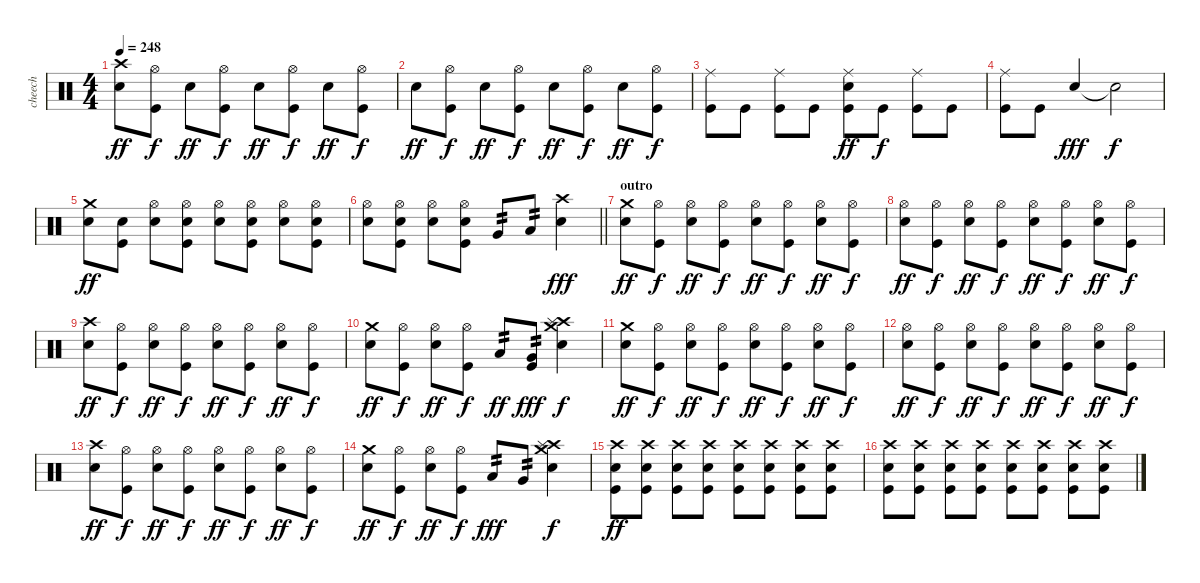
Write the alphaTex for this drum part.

\track ("cheech" "cheech") {instrument percussion}
\staff {score}
\articulation defaults
\ts (4 4)
\tempo 248
\clef neutral
\ks c
("Crash high (hit)" "Electric Snare (hit)").8{dy ff} ("Hi-Hat (open)" "Kick (hit)").8{dy f} "Electric Snare (hit)".8{dy ff} ("Hi-Hat (open)" "Kick (hit)").8{dy f} "Electric Snare (hit)".8{dy ff} ("Hi-Hat (open)" "Kick (hit)").8{dy f} "Electric Snare (hit)".8{dy ff} ("Hi-Hat (open)" "Kick (hit)").8{dy f} |
"Electric Snare (hit)".8{dy ff} ("Hi-Hat (open)" "Kick (hit)").8{dy f} "Electric Snare (hit)".8{dy ff} ("Hi-Hat (open)" "Kick (hit)").8{dy f} "Electric Snare (hit)".8{dy ff} ("Hi-Hat (open)" "Kick (hit)").8{dy f} "Electric Snare (hit)".8{dy ff} ("Hi-Hat (open)" "Kick (hit)").8{dy f} |
("Ride (middle)" "Kick (hit)").8 "Kick (hit)".8 ("Ride (middle)" "Kick (hit)").8 "Kick (hit)".8 ("Ride (middle)" "Electric Snare (hit)" "Kick (hit)").8{dy ff} "Kick (hit)".8{dy f} ("Ride (middle)" "Kick (hit)").8 "Kick (hit)".8 |
("Ride (middle)" "Kick (hit)").8 "Kick (hit)".8 "Electric Snare (hit)".4{dy fff beam Up} "Electric Snare (hit)"{t}.2{dy f} |
("Crash medium (hit)" "Electric Snare (hit)").8{dy ff} ("Electric Snare (hit)" "Kick (hit)").8 ("Hi-Hat (open)" "Electric Snare (hit)").8 ("Hi-Hat (open)" "Electric Snare (hit)" "Kick (hit)").8 ("Hi-Hat (open)" "Electric Snare (hit)").8 ("Hi-Hat (open)" "Electric Snare (hit)" "Kick (hit)").8 ("Hi-Hat (open)" "Electric Snare (hit)").8 ("Hi-Hat (open)" "Electric Snare (hit)" "Kick (hit)").8 |
\barLineRight lightlight
("Hi-Hat (open)" "Electric Snare (hit)").8 ("Hi-Hat (open)" "Electric Snare (hit)" "Kick (hit)").8 ("Hi-Hat (open)" "Electric Snare (hit)").8 ("Hi-Hat (open)" "Electric Snare (hit)" "Kick (hit)").8 "Very Low Tom (hit)".8{tp 2} "Low Floor Tom (hit)".8{tp 2} ("Crash high (hit)" "Electric Snare (hit)").4{dy fff} |
\section ("" "outro")
("Crash medium (hit)" "Electric Snare (hit)").8{dy ff} ("Hi-Hat (open)" "Kick (hit)").8{dy f} ("Hi-Hat (open)" "Electric Snare (hit)").8{dy ff} ("Hi-Hat (open)" "Kick (hit)").8{dy f} ("Hi-Hat (open)" "Electric Snare (hit)").8{dy ff} ("Hi-Hat (open)" "Kick (hit)").8{dy f} ("Hi-Hat (open)" "Electric Snare (hit)").8{dy ff} ("Hi-Hat (open)" "Kick (hit)").8{dy f} |
("Hi-Hat (open)" "Electric Snare (hit)").8{dy ff} ("Hi-Hat (open)" "Kick (hit)").8{dy f} ("Hi-Hat (open)" "Electric Snare (hit)").8{dy ff} ("Hi-Hat (open)" "Kick (hit)").8{dy f} ("Hi-Hat (open)" "Electric Snare (hit)").8{dy ff} ("Hi-Hat (open)" "Kick (hit)").8{dy f} ("Hi-Hat (open)" "Electric Snare (hit)").8{dy ff} ("Hi-Hat (open)" "Kick (hit)").8{dy f} |
("Crash high (hit)" "Electric Snare (hit)").8{dy ff} ("Hi-Hat (open)" "Kick (hit)").8{dy f} ("Hi-Hat (open)" "Electric Snare (hit)").8{dy ff} ("Hi-Hat (open)" "Kick (hit)").8{dy f} ("Hi-Hat (open)" "Electric Snare (hit)").8{dy ff} ("Hi-Hat (open)" "Kick (hit)").8{dy f} ("Hi-Hat (open)" "Electric Snare (hit)").8{dy ff} ("Hi-Hat (open)" "Kick (hit)").8{dy f} |
("Crash medium (hit)" "Electric Snare (hit)").8{dy ff} ("Hi-Hat (open)" "Kick (hit)").8{dy f} ("Hi-Hat (open)" "Electric Snare (hit)").8{dy ff} ("Hi-Hat (open)" "Kick (hit)").8{dy f} "Low Tom (hit)".8{tp 2 dy ff} ("Very Low Tom (hit)" "Kick (hit)").8{tp 2 dy fff} ("Crash high (hit)" "Splash (hit)" "Crash medium (hit)" "Electric Snare (hit)").4{dy f} |
("Crash medium (hit)" "Electric Snare (hit)").8{dy ff} ("Hi-Hat (open)" "Kick (hit)").8{dy f} ("Hi-Hat (open)" "Electric Snare (hit)").8{dy ff} ("Hi-Hat (open)" "Kick (hit)").8{dy f} ("Hi-Hat (open)" "Electric Snare (hit)").8{dy ff} ("Hi-Hat (open)" "Kick (hit)").8{dy f} ("Hi-Hat (open)" "Electric Snare (hit)").8{dy ff} ("Hi-Hat (open)" "Kick (hit)").8{dy f} |
("Hi-Hat (open)" "Electric Snare (hit)").8{dy ff} ("Hi-Hat (open)" "Kick (hit)").8{dy f} ("Hi-Hat (open)" "Electric Snare (hit)").8{dy ff} ("Hi-Hat (open)" "Kick (hit)").8{dy f} ("Hi-Hat (open)" "Electric Snare (hit)").8{dy ff} ("Hi-Hat (open)" "Kick (hit)").8{dy f} ("Hi-Hat (open)" "Electric Snare (hit)").8{dy ff} ("Hi-Hat (open)" "Kick (hit)").8{dy f} |
("Crash high (hit)" "Electric Snare (hit)").8{dy ff} ("Hi-Hat (open)" "Kick (hit)").8{dy f} ("Hi-Hat (open)" "Electric Snare (hit)").8{dy ff} ("Hi-Hat (open)" "Kick (hit)").8{dy f} ("Hi-Hat (open)" "Electric Snare (hit)").8{dy ff} ("Hi-Hat (open)" "Kick (hit)").8{dy f} ("Hi-Hat (open)" "Electric Snare (hit)").8{dy ff} ("Hi-Hat (open)" "Kick (hit)").8{dy f} |
("Crash medium (hit)" "Electric Snare (hit)").8{dy ff} ("Hi-Hat (open)" "Kick (hit)").8{dy f} ("Hi-Hat (open)" "Electric Snare (hit)").8{dy ff} ("Hi-Hat (open)" "Kick (hit)").8{dy f} "Low Tom (hit)".8{tp 2 dy fff} "Very Low Tom (hit)".8{tp 2} ("Crash high (hit)" "Splash (hit)" "Crash medium (hit)" "Electric Snare (hit)").4{dy f} |
("Crash high (hit)" "Electric Snare (hit)" "Kick (hit)").8{dy ff} ("Crash high (hit)" "Electric Snare (hit)" "Kick (hit)").8 ("Crash high (hit)" "Electric Snare (hit)" "Kick (hit)").8 ("Crash high (hit)" "Electric Snare (hit)" "Kick (hit)").8 ("Crash high (hit)" "Electric Snare (hit)" "Kick (hit)").8 ("Crash high (hit)" "Electric Snare (hit)" "Kick (hit)").8 ("Crash high (hit)" "Electric Snare (hit)" "Kick (hit)").8 ("Crash high (hit)" "Electric Snare (hit)" "Kick (hit)").8 |
("Crash high (hit)" "Electric Snare (hit)" "Kick (hit)").8 ("Crash high (hit)" "Electric Snare (hit)" "Kick (hit)").8 ("Crash high (hit)" "Electric Snare (hit)" "Kick (hit)").8 ("Crash high (hit)" "Electric Snare (hit)" "Kick (hit)").8 ("Crash high (hit)" "Electric Snare (hit)" "Kick (hit)").8 ("Crash high (hit)" "Electric Snare (hit)" "Kick (hit)").8 ("Crash high (hit)" "Electric Snare (hit)" "Kick (hit)").8 ("Crash high (hit)" "Electric Snare (hit)" "Kick (hit)").8
